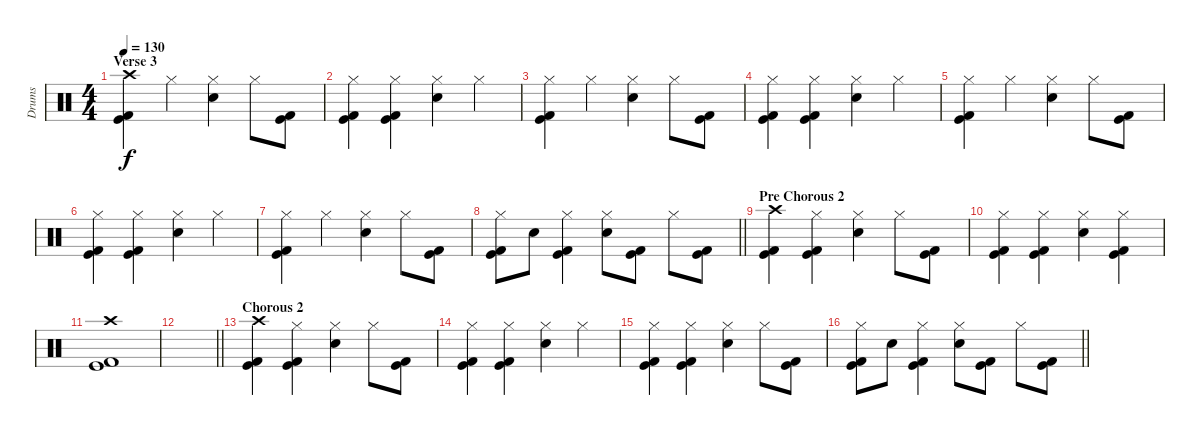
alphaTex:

\track ("Drums" "Drums") {instrument percussion}
\staff {score}
\articulation defaults
\ts (4 4)
\section ("" "Verse 3")
\tempo 130
\clef neutral
\ks c
("Crash high (hit)" "Kick (hit)" "Kick (hit) 2").4{dy f} "Hi-Hat (closed)".4 ("Hi-Hat (closed)" "Electric Snare (hit)").4 "Hi-Hat (closed)".8 ("Kick (hit)" "Kick (hit) 2").8 |
("Hi-Hat (closed)" "Kick (hit)" "Kick (hit) 2").4 ("Hi-Hat (closed)" "Kick (hit)" "Kick (hit) 2").4 ("Hi-Hat (closed)" "Electric Snare (hit)").4 "Hi-Hat (closed)".4 |
("Hi-Hat (closed)" "Kick (hit)" "Kick (hit) 2").4 "Hi-Hat (closed)".4 ("Hi-Hat (closed)" "Electric Snare (hit)").4 "Hi-Hat (closed)".8 ("Kick (hit)" "Kick (hit) 2").8 |
("Hi-Hat (closed)" "Kick (hit)" "Kick (hit) 2").4 ("Hi-Hat (closed)" "Kick (hit)" "Kick (hit) 2").4 ("Hi-Hat (closed)" "Electric Snare (hit)").4 "Hi-Hat (closed)".4 |
("Hi-Hat (closed)" "Kick (hit)" "Kick (hit) 2").4 "Hi-Hat (closed)".4 ("Hi-Hat (closed)" "Electric Snare (hit)").4 "Hi-Hat (closed)".8 ("Kick (hit)" "Kick (hit) 2").8 |
("Hi-Hat (closed)" "Kick (hit)" "Kick (hit) 2").4 ("Hi-Hat (closed)" "Kick (hit)" "Kick (hit) 2").4 ("Hi-Hat (closed)" "Electric Snare (hit)").4 "Hi-Hat (closed)".4 |
("Hi-Hat (closed)" "Kick (hit)" "Kick (hit) 2").4 "Hi-Hat (closed)".4 ("Hi-Hat (closed)" "Electric Snare (hit)").4 "Hi-Hat (closed)".8 ("Kick (hit)" "Kick (hit) 2").8 |
\barLineRight lightlight
("Hi-Hat (closed)" "Kick (hit)" "Kick (hit) 2").8 "Electric Snare (hit)".8 ("Hi-Hat (closed)" "Kick (hit)" "Kick (hit) 2").4 ("Hi-Hat (closed)" "Electric Snare (hit)").8 ("Kick (hit)" "Kick (hit) 2").8 "Hi-Hat (closed)".8 ("Kick (hit)" "Kick (hit) 2").8 |
\section ("" "Pre Chorous 2")
("Crash high (hit)" "Kick (hit)" "Kick (hit) 2").4 ("Hi-Hat (closed)" "Kick (hit)" "Kick (hit) 2").4 ("Hi-Hat (closed)" "Electric Snare (hit)").4 "Hi-Hat (closed)".8 ("Kick (hit)" "Kick (hit) 2").8 |
("Hi-Hat (closed)" "Kick (hit)" "Kick (hit) 2").4 ("Hi-Hat (closed)" "Kick (hit)" "Kick (hit) 2").4 ("Hi-Hat (closed)" "Electric Snare (hit)").4 ("Hi-Hat (closed)" "Kick (hit)" "Kick (hit) 2").4 |
("Crash high (hit)" "Kick (hit)" "Kick (hit) 2").1 |
\barLineRight lightlight
|
\section ("" "Chorous 2")
("Crash high (hit)" "Kick (hit)" "Kick (hit) 2").4 ("Hi-Hat (closed)" "Kick (hit)" "Kick (hit) 2").4 ("Hi-Hat (closed)" "Electric Snare (hit)").4 "Hi-Hat (closed)".8 ("Kick (hit)" "Kick (hit) 2").8 |
("Hi-Hat (closed)" "Kick (hit)" "Kick (hit) 2").4 ("Hi-Hat (closed)" "Kick (hit)" "Kick (hit) 2").4 ("Hi-Hat (closed)" "Electric Snare (hit)").4 "Hi-Hat (closed)".4 |
("Hi-Hat (closed)" "Kick (hit)" "Kick (hit) 2").4 ("Hi-Hat (closed)" "Kick (hit)" "Kick (hit) 2").4 ("Hi-Hat (closed)" "Electric Snare (hit)").4 "Hi-Hat (closed)".8 ("Kick (hit)" "Kick (hit) 2").8 |
\barLineRight lightlight
("Hi-Hat (closed)" "Kick (hit)" "Kick (hit) 2").8 "Electric Snare (hit)".8 ("Hi-Hat (closed)" "Kick (hit)" "Kick (hit) 2").4 ("Hi-Hat (closed)" "Electric Snare (hit)").8 ("Kick (hit)" "Kick (hit) 2").8 "Hi-Hat (closed)".8 ("Kick (hit)" "Kick (hit) 2").8
